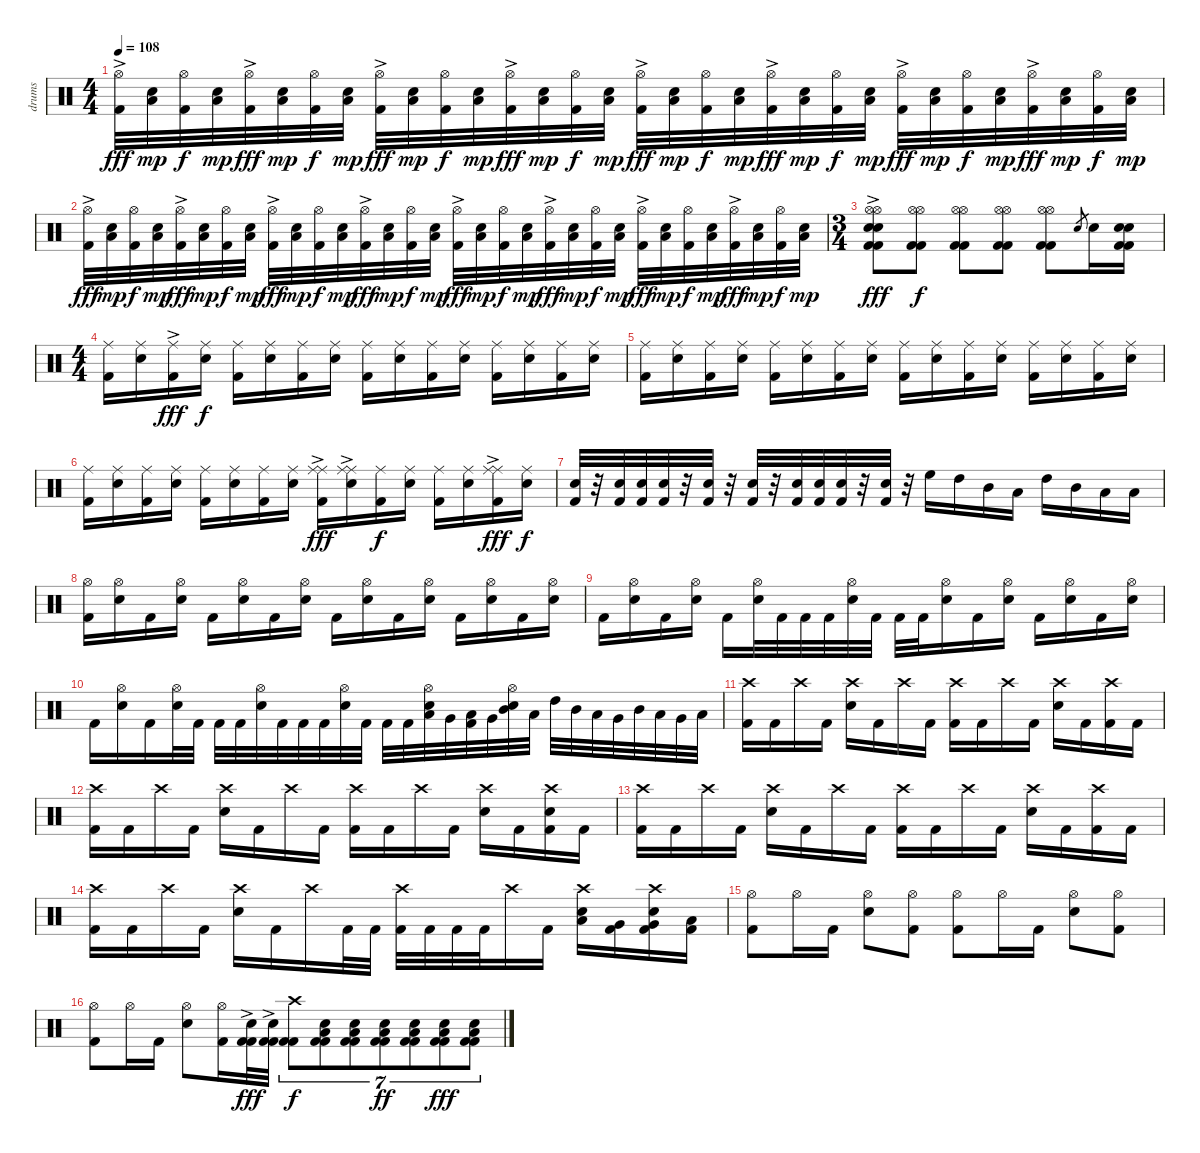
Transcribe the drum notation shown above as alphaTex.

\track ("drums" "drums") {instrument percussion}
\staff {score}
\articulation defaults
\ts (4 4)
\tempo 108
\clef neutral
\ks c
("Hi-Hat (open)"{ac} "Kick (hit) 2").32{dy fff} ("Electric Snare (hit)" "Low Tom (hit)").32{dy mp} ("Hi-Hat (open)" "Kick (hit) 2").32{dy f} ("Electric Snare (hit)" "Low Tom (hit)").32{dy mp} ("Hi-Hat (open)"{ac} "Kick (hit) 2").32{dy fff} ("Electric Snare (hit)" "Low Tom (hit)").32{dy mp} ("Hi-Hat (open)" "Kick (hit) 2").32{dy f} ("Electric Snare (hit)" "Low Tom (hit)").32{dy mp} ("Hi-Hat (open)"{ac} "Kick (hit) 2").32{dy fff} ("Electric Snare (hit)" "Low Tom (hit)").32{dy mp} ("Hi-Hat (open)" "Kick (hit) 2").32{dy f} ("Electric Snare (hit)" "Low Tom (hit)").32{dy mp} ("Hi-Hat (open)"{ac} "Kick (hit) 2").32{dy fff} ("Electric Snare (hit)" "Low Tom (hit)").32{dy mp} ("Hi-Hat (open)" "Kick (hit) 2").32{dy f} ("Electric Snare (hit)" "Low Tom (hit)").32{dy mp} ("Hi-Hat (open)"{ac} "Kick (hit) 2").32{dy fff} ("Electric Snare (hit)" "Low Tom (hit)").32{dy mp} ("Hi-Hat (open)" "Kick (hit) 2").32{dy f} ("Electric Snare (hit)" "Low Tom (hit)").32{dy mp} ("Hi-Hat (open)"{ac} "Kick (hit) 2").32{dy fff} ("Electric Snare (hit)" "Low Tom (hit)").32{dy mp} ("Hi-Hat (open)" "Kick (hit) 2").32{dy f} ("Electric Snare (hit)" "Low Tom (hit)").32{dy mp} ("Hi-Hat (open)"{ac} "Kick (hit) 2").32{dy fff} ("Electric Snare (hit)" "Low Tom (hit)").32{dy mp} ("Hi-Hat (open)" "Kick (hit) 2").32{dy f} ("Electric Snare (hit)" "Low Tom (hit)").32{dy mp} ("Hi-Hat (open)"{ac} "Kick (hit) 2").32{dy fff} ("Electric Snare (hit)" "Low Tom (hit)").32{dy mp} ("Hi-Hat (open)" "Kick (hit) 2").32{dy f} ("Electric Snare (hit)" "Low Tom (hit)").32{dy mp} |
("Hi-Hat (open)"{ac} "Kick (hit) 2").32{dy fff} ("Electric Snare (hit)" "Low Tom (hit)").32{dy mp} ("Hi-Hat (open)" "Kick (hit) 2").32{dy f} ("Electric Snare (hit)" "Low Tom (hit)").32{dy mp} ("Hi-Hat (open)"{ac} "Kick (hit) 2").32{dy fff} ("Electric Snare (hit)" "Low Tom (hit)").32{dy mp} ("Hi-Hat (open)" "Kick (hit) 2").32{dy f} ("Electric Snare (hit)" "Low Tom (hit)").32{dy mp} ("Hi-Hat (open)"{ac} "Kick (hit) 2").32{dy fff} ("Electric Snare (hit)" "Low Tom (hit)").32{dy mp} ("Hi-Hat (open)" "Kick (hit) 2").32{dy f} ("Electric Snare (hit)" "Low Tom (hit)").32{dy mp} ("Hi-Hat (open)"{ac} "Kick (hit) 2").32{dy fff} ("Electric Snare (hit)" "Low Tom (hit)").32{dy mp} ("Hi-Hat (open)" "Kick (hit) 2").32{dy f} ("Electric Snare (hit)" "Low Tom (hit)").32{dy mp} ("Hi-Hat (open)"{ac} "Kick (hit) 2").32{dy fff} ("Electric Snare (hit)" "Low Tom (hit)").32{dy mp} ("Hi-Hat (open)" "Kick (hit) 2").32{dy f} ("Electric Snare (hit)" "Low Tom (hit)").32{dy mp} ("Hi-Hat (open)"{ac} "Kick (hit) 2").32{dy fff} ("Electric Snare (hit)" "Low Tom (hit)").32{dy mp} ("Hi-Hat (open)" "Kick (hit) 2").32{dy f} ("Electric Snare (hit)" "Low Tom (hit)").32{dy mp} ("Hi-Hat (open)"{ac} "Kick (hit) 2").32{dy fff} ("Electric Snare (hit)" "Low Tom (hit)").32{dy mp} ("Hi-Hat (open)" "Kick (hit) 2").32{dy f} ("Electric Snare (hit)" "Low Tom (hit)").32{dy mp} ("Hi-Hat (open)"{ac} "Kick (hit) 2").32{dy fff} ("Electric Snare (hit)" "Low Tom (hit)").32{dy mp} ("Hi-Hat (open)" "Kick (hit) 2").32{dy f} ("Electric Snare (hit)" "Low Tom (hit)").32{dy mp} |
\ts (3 4)
("Electric Snare (hit)"{ac} "Electric Snare (hit)" "Hi-Hat (open)" "Hi-Hat (open)" "Kick (hit) 2"{ac} "Kick (hit) 2"{ac}).8{dy fff} ("Hi-Hat (open)" "Hi-Hat (open)" "Kick (hit) 2" "Kick (hit) 2").8{dy f} ("Hi-Hat (open)" "Hi-Hat (open)" "Kick (hit) 2" "Kick (hit) 2").8 ("Hi-Hat (open)" "Hi-Hat (open)" "Kick (hit) 2" "Kick (hit) 2").8 ("Hi-Hat (open)" "Hi-Hat (open)" "Kick (hit) 2" "Kick (hit) 2").8 "Electric Snare (hit)".8{gr} "Electric Snare (hit)".16 ("Electric Snare (hit)" "Electric Snare (hit)" "Kick (hit) 2" "Kick (hit) 2").16 |
\ts (4 4)
("Ride (middle)" "Kick (hit) 2").16 ("Electric Snare (hit)" "Ride (middle)").16 ("Ride (middle)"{ac} "Kick (hit) 2").16{dy fff} ("Electric Snare (hit)" "Ride (middle)").16{dy f} ("Ride (middle)" "Kick (hit) 2").16 ("Electric Snare (hit)" "Ride (middle)").16 ("Ride (middle)" "Kick (hit) 2").16 ("Electric Snare (hit)" "Ride (middle)").16 ("Ride (middle)" "Kick (hit) 2").16 ("Electric Snare (hit)" "Ride (middle)").16 ("Ride (middle)" "Kick (hit) 2").16 ("Electric Snare (hit)" "Ride (middle)").16 ("Ride (middle)" "Kick (hit) 2").16 ("Electric Snare (hit)" "Ride (middle)").16 ("Ride (middle)" "Kick (hit) 2").16 ("Electric Snare (hit)" "Ride (middle)").16 |
("Ride (middle)" "Kick (hit) 2").16 ("Electric Snare (hit)" "Ride (middle)").16 ("Ride (middle)" "Kick (hit) 2").16 ("Electric Snare (hit)" "Ride (middle)").16 ("Ride (middle)" "Kick (hit) 2").16 ("Electric Snare (hit)" "Ride (middle)").16 ("Ride (middle)" "Kick (hit) 2").16 ("Electric Snare (hit)" "Ride (middle)").16 ("Ride (middle)" "Kick (hit) 2").16 ("Electric Snare (hit)" "Ride (middle)").16 ("Ride (middle)" "Kick (hit) 2").16 ("Electric Snare (hit)" "Ride (middle)").16 ("Ride (middle)" "Kick (hit) 2").16 ("Electric Snare (hit)" "Ride (middle)").16 ("Ride (middle)" "Kick (hit) 2").16 ("Electric Snare (hit)" "Ride (middle)").16 |
("Ride (middle)" "Kick (hit) 2").16 ("Electric Snare (hit)" "Ride (middle)").16 ("Ride (middle)" "Kick (hit) 2").16 ("Electric Snare (hit)" "Ride (middle)").16 ("Ride (middle)" "Kick (hit) 2").16 ("Electric Snare (hit)" "Ride (middle)").16 ("Ride (middle)" "Kick (hit) 2").16 ("Electric Snare (hit)" "Ride (middle)").16 ("Ride (middle)"{ac} "Ride (middle)" "Kick (hit) 2").16{dy fff} ("Electric Snare (hit)" "Ride (middle)"{ac} "Ride (middle)").16 ("Ride (middle)" "Kick (hit) 2").16{dy f} ("Electric Snare (hit)" "Ride (middle)").16 ("Ride (middle)" "Kick (hit) 2").16 ("Electric Snare (hit)" "Ride (middle)").16 ("Ride (middle)"{ac} "Ride (middle)" "Kick (hit) 2").16{dy fff} ("Electric Snare (hit)" "Ride (middle)").16{dy f} |
("Electric Snare (hit)" "Kick (hit) 2").32 r.32 ("Electric Snare (hit)" "Kick (hit) 2").32 ("Electric Snare (hit)" "Kick (hit) 2").32 ("Electric Snare (hit)" "Kick (hit) 2").32 r.32 ("Electric Snare (hit)" "Kick (hit) 2").32 r.32 ("Electric Snare (hit)" "Kick (hit) 2").32 r.32 ("Electric Snare (hit)" "Kick (hit) 2").32 ("Electric Snare (hit)" "Kick (hit) 2").32 ("Electric Snare (hit)" "Kick (hit) 2").32 r.32 ("Electric Snare (hit)" "Kick (hit) 2").32 r.32 "High Floor Tom (hit)".16 "High Tom (hit)".16 "Mid Tom (hit)".16 "Low Tom (hit)".16 "High Tom (hit)".16 "Mid Tom (hit)".16 "Low Tom (hit)".16 "Low Floor Tom (hit)".16 |
("Hi-Hat (open)" "Kick (hit) 2").16 ("Electric Snare (hit)" "Hi-Hat (open)").16 "Kick (hit) 2".16 ("Electric Snare (hit)" "Hi-Hat (open)").16 "Kick (hit) 2".16 ("Electric Snare (hit)" "Hi-Hat (open)").16 "Kick (hit) 2".16 ("Electric Snare (hit)" "Hi-Hat (open)").16 "Kick (hit) 2".16 ("Electric Snare (hit)" "Hi-Hat (open)").16 "Kick (hit) 2".16 ("Electric Snare (hit)" "Hi-Hat (open)").16 "Kick (hit) 2".16 ("Electric Snare (hit)" "Hi-Hat (open)").16 "Kick (hit) 2".16 ("Electric Snare (hit)" "Hi-Hat (open)").16 |
"Kick (hit) 2".16 ("Electric Snare (hit)" "Hi-Hat (open)").16 "Kick (hit) 2".16 ("Electric Snare (hit)" "Hi-Hat (open)").16 "Kick (hit) 2".16 ("Electric Snare (hit)" "Hi-Hat (open)").32 "Kick (hit) 2".32 "Kick (hit) 2".32 "Kick (hit) 2".32 ("Electric Snare (hit)" "Hi-Hat (open)").32 "Kick (hit) 2".32 "Kick (hit) 2".32 "Kick (hit) 2".32 ("Electric Snare (hit)" "Hi-Hat (open)").16 "Kick (hit) 2".16 ("Electric Snare (hit)" "Hi-Hat (open)").16 "Kick (hit) 2".16 ("Electric Snare (hit)" "Hi-Hat (open)").16 "Kick (hit) 2".16 ("Electric Snare (hit)" "Hi-Hat (open)").16 |
"Kick (hit) 2".16 ("Electric Snare (hit)" "Hi-Hat (open)").16 "Kick (hit) 2".16 ("Electric Snare (hit)" "Hi-Hat (open)").32 "Kick (hit) 2".32 "Kick (hit) 2".32 "Kick (hit) 2".32 ("Electric Snare (hit)" "Hi-Hat (open)").32 "Kick (hit) 2".32 "Kick (hit) 2".32 "Kick (hit) 2".32 ("Electric Snare (hit)" "Hi-Hat (open)").32 "Kick (hit) 2".32 "Kick (hit) 2".32 "Kick (hit) 2".32 ("Electric Snare (hit)" "Hi-Hat (open)" "Low Tom (hit)").32 "Very Low Tom (hit)".32 ("Low Floor Tom (hit)" "Kick (hit) 2").32 "Very Low Tom (hit)".32 ("Electric Snare (hit)" "Hi-Hat (open)" "Mid Tom (hit)").32 "Low Tom (hit)".32 "High Tom (hit)".32 "Mid Tom (hit)".32 "Low Tom (hit)".32 "Very Low Tom (hit)".32 "Mid Tom (hit)".32 "Low Tom (hit)".32 "Very Low Tom (hit)".32 "Low Floor Tom (hit)".32 |
("Crash high (hit)" "Kick (hit) 2").16 "Kick (hit) 2".16 "Crash high (hit)".16 "Kick (hit) 2".16 ("Electric Snare (hit)" "Crash high (hit)").16 "Kick (hit) 2".16 "Crash high (hit)".16 "Kick (hit) 2".16 ("Crash high (hit)" "Kick (hit) 2").16 "Kick (hit) 2".16 "Crash high (hit)".16 "Kick (hit) 2".16 ("Electric Snare (hit)" "Crash high (hit)").16 "Kick (hit) 2".16 ("Crash high (hit)" "Kick (hit) 2").16 "Kick (hit) 2".16 |
("Crash high (hit)" "Kick (hit) 2").16 "Kick (hit) 2".16 "Crash high (hit)".16 "Kick (hit) 2".16 ("Electric Snare (hit)" "Crash high (hit)").16 "Kick (hit) 2".16 "Crash high (hit)".16 "Kick (hit) 2".16 ("Crash high (hit)" "Kick (hit) 2").16 "Kick (hit) 2".16 "Crash high (hit)".16 "Kick (hit) 2".16 ("Electric Snare (hit)" "Crash high (hit)").16 "Kick (hit) 2".16 ("Electric Snare (hit)" "Crash high (hit)" "Kick (hit) 2").16 "Kick (hit) 2".16 |
("Crash high (hit)" "Kick (hit) 2").16 "Kick (hit) 2".16 "Crash high (hit)".16 "Kick (hit) 2".16 ("Electric Snare (hit)" "Crash high (hit)").16 "Kick (hit) 2".16 "Crash high (hit)".16 "Kick (hit) 2".16 ("Crash high (hit)" "Kick (hit) 2").16 "Kick (hit) 2".16 "Crash high (hit)".16 "Kick (hit) 2".16 ("Electric Snare (hit)" "Crash high (hit)").16 "Kick (hit) 2".16 ("Crash high (hit)" "Kick (hit) 2").16 "Kick (hit) 2".16 |
("Crash high (hit)" "Kick (hit) 2").16 "Kick (hit) 2".16 "Crash high (hit)".16 "Kick (hit) 2".16 ("Electric Snare (hit)" "Crash high (hit)").16 "Kick (hit) 2".16 "Crash high (hit)".16 "Kick (hit) 2".32 "Kick (hit) 2".32 ("Crash high (hit)" "Kick (hit) 2").32 "Kick (hit) 2".32 "Kick (hit) 2".32 "Kick (hit) 2".32 "Crash high (hit)".16 "Kick (hit) 2".16 ("Electric Snare (hit)" "Crash high (hit)" "Low Tom (hit)").16 ("Very Low Tom (hit)" "Kick (hit) 2").16 ("Electric Snare (hit)" "Crash high (hit)" "Very Low Tom (hit)" "Kick (hit) 2").16 ("Low Floor Tom (hit)" "Kick (hit) 2").16 |
("Hi-Hat (open)" "Kick (hit) 2").8 "Hi-Hat (open)".16 "Kick (hit) 2".16 ("Electric Snare (hit)" "Hi-Hat (open)").8 ("Hi-Hat (open)" "Kick (hit) 2").8 ("Hi-Hat (open)" "Kick (hit) 2").8 "Hi-Hat (open)".16 "Kick (hit) 2".16 ("Electric Snare (hit)" "Hi-Hat (open)").8 ("Hi-Hat (open)" "Kick (hit) 2").8 |
("Hi-Hat (open)" "Kick (hit) 2").8 "Hi-Hat (open)".16 "Kick (hit) 2".16 ("Electric Snare (hit)" "Hi-Hat (open)").8 ("Hi-Hat (open)" "Kick (hit) 2").16 ("Electric Snare (hit)" "Kick (hit) 2" "Kick (hit) 2"{ac}).32{dy fff} ("Electric Snare (hit)" "Kick (hit) 2" "Kick (hit) 2"{ac}).32 ("Crash high (hit)" "Kick (hit) 2" "Kick (hit) 2").8{tu (7 4) dy f} ("Electric Snare (hit)" "Low Floor Tom (hit)" "Kick (hit) 2" "Kick (hit) 2").8{tu (7 4)} ("Electric Snare (hit)" "Low Floor Tom (hit)" "Kick (hit) 2" "Kick (hit) 2").8{tu (7 4)} ("Electric Snare (hit)" "Low Floor Tom (hit)" "Kick (hit) 2" "Kick (hit) 2").8{tu (7 4) dy ff} ("Electric Snare (hit)" "Low Floor Tom (hit)" "Kick (hit) 2" "Kick (hit) 2").8{tu (7 4)} ("Electric Snare (hit)" "Low Floor Tom (hit)" "Kick (hit) 2" "Kick (hit) 2").8{tu (7 4) dy fff} ("Electric Snare (hit)" "Low Floor Tom (hit)" "Kick (hit) 2" "Kick (hit) 2").8{tu (7 4)}
